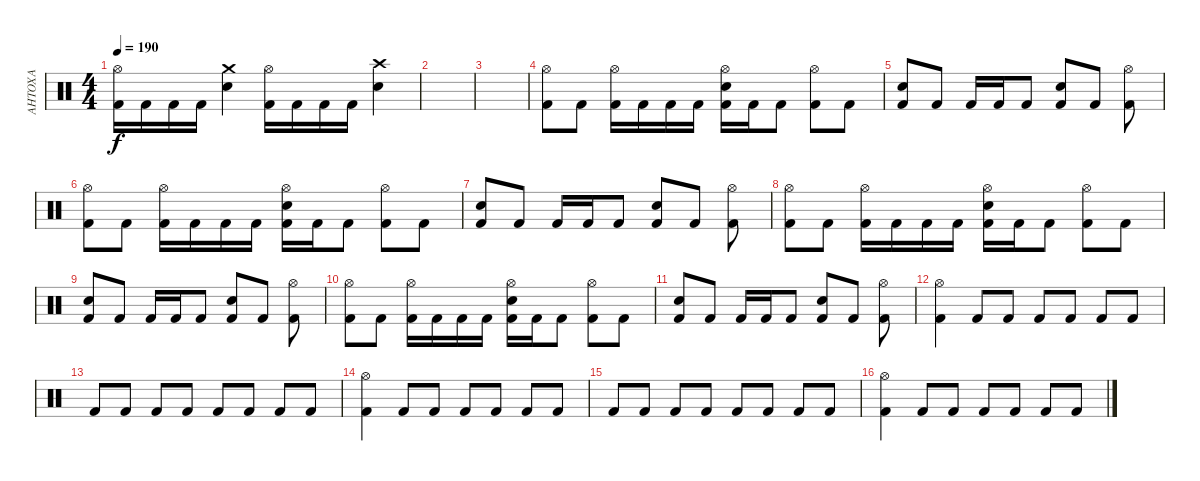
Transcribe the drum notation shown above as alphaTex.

\track ("АНТОХА" "АНТОХА") {instrument percussion}
\staff {score}
\articulation defaults
\ts (4 4)
\tempo 190
\clef neutral
\ks c
("Hi-Hat (open)" "Kick (hit) 2").16{dy f} "Kick (hit) 2".16 "Kick (hit) 2".16 "Kick (hit) 2".16 ("Crash medium (hit)" "Electric Snare (hit)").4 ("Hi-Hat (open)" "Kick (hit) 2").16 "Kick (hit) 2".16 "Kick (hit) 2".16 "Kick (hit) 2".16 ("Crash high (hit)" "Electric Snare (hit)").4 |
|
|
("Kick (hit) 2" "Hi-Hat (open)").8 "Kick (hit) 2".8 ("Hi-Hat (open)" "Kick (hit) 2").16 "Kick (hit) 2".16 "Kick (hit) 2".16 "Kick (hit) 2".16 ("Hi-Hat (open)" "Electric Snare (hit)" "Kick (hit) 2").16 "Kick (hit) 2".16 "Kick (hit) 2".8 ("Hi-Hat (open)" "Kick (hit) 2").8 "Kick (hit) 2".8 |
("Kick (hit) 2" "Snare (hit) 2").8 "Kick (hit) 2".8 "Kick (hit) 2".16 "Kick (hit) 2".16 "Kick (hit) 2".8 ("Kick (hit) 2" "Snare (hit) 2").8 "Kick (hit) 2".8 ("Kick (hit) 2" "Hi-Hat (open)").8 |
("Kick (hit) 2" "Hi-Hat (open)").8 "Kick (hit) 2".8 ("Hi-Hat (open)" "Kick (hit) 2").16 "Kick (hit) 2".16 "Kick (hit) 2".16 "Kick (hit) 2".16 ("Hi-Hat (open)" "Electric Snare (hit)" "Kick (hit) 2").16 "Kick (hit) 2".16 "Kick (hit) 2".8 ("Hi-Hat (open)" "Kick (hit) 2").8 "Kick (hit) 2".8 |
("Kick (hit) 2" "Snare (hit) 2").8 "Kick (hit) 2".8 "Kick (hit) 2".16 "Kick (hit) 2".16 "Kick (hit) 2".8 ("Kick (hit) 2" "Snare (hit) 2").8 "Kick (hit) 2".8 ("Kick (hit) 2" "Hi-Hat (open)").8 |
("Kick (hit) 2" "Hi-Hat (open)").8 "Kick (hit) 2".8 ("Hi-Hat (open)" "Kick (hit) 2").16 "Kick (hit) 2".16 "Kick (hit) 2".16 "Kick (hit) 2".16 ("Hi-Hat (open)" "Electric Snare (hit)" "Kick (hit) 2").16 "Kick (hit) 2".16 "Kick (hit) 2".8 ("Hi-Hat (open)" "Kick (hit) 2").8 "Kick (hit) 2".8 |
("Kick (hit) 2" "Snare (hit) 2").8 "Kick (hit) 2".8 "Kick (hit) 2".16 "Kick (hit) 2".16 "Kick (hit) 2".8 ("Kick (hit) 2" "Snare (hit) 2").8 "Kick (hit) 2".8 ("Kick (hit) 2" "Hi-Hat (open)").8 |
("Kick (hit) 2" "Hi-Hat (open)").8 "Kick (hit) 2".8 ("Hi-Hat (open)" "Kick (hit) 2").16 "Kick (hit) 2".16 "Kick (hit) 2".16 "Kick (hit) 2".16 ("Hi-Hat (open)" "Electric Snare (hit)" "Kick (hit) 2").16 "Kick (hit) 2".16 "Kick (hit) 2".8 ("Hi-Hat (open)" "Kick (hit) 2").8 "Kick (hit) 2".8 |
("Kick (hit) 2" "Snare (hit) 2").8 "Kick (hit) 2".8 "Kick (hit) 2".16 "Kick (hit) 2".16 "Kick (hit) 2".8 ("Kick (hit) 2" "Snare (hit) 2").8 "Kick (hit) 2".8 ("Kick (hit) 2" "Hi-Hat (open)").8 |
("Kick (hit) 2" "Hi-Hat (open)").4 "Kick (hit) 2".8 "Kick (hit) 2".8 "Kick (hit) 2".8 "Kick (hit) 2".8 "Kick (hit) 2".8 "Kick (hit) 2".8 |
"Kick (hit) 2".8 "Kick (hit) 2".8 "Kick (hit) 2".8 "Kick (hit) 2".8 "Kick (hit) 2".8 "Kick (hit) 2".8 "Kick (hit) 2".8 "Kick (hit) 2".8 |
("Kick (hit) 2" "Hi-Hat (open)").4 "Kick (hit) 2".8 "Kick (hit) 2".8 "Kick (hit) 2".8 "Kick (hit) 2".8 "Kick (hit) 2".8 "Kick (hit) 2".8 |
"Kick (hit) 2".8 "Kick (hit) 2".8 "Kick (hit) 2".8 "Kick (hit) 2".8 "Kick (hit) 2".8 "Kick (hit) 2".8 "Kick (hit) 2".8 "Kick (hit) 2".8 |
("Kick (hit) 2" "Hi-Hat (open)").4 "Kick (hit) 2".8 "Kick (hit) 2".8 "Kick (hit) 2".8 "Kick (hit) 2".8 "Kick (hit) 2".8 "Kick (hit) 2".8
